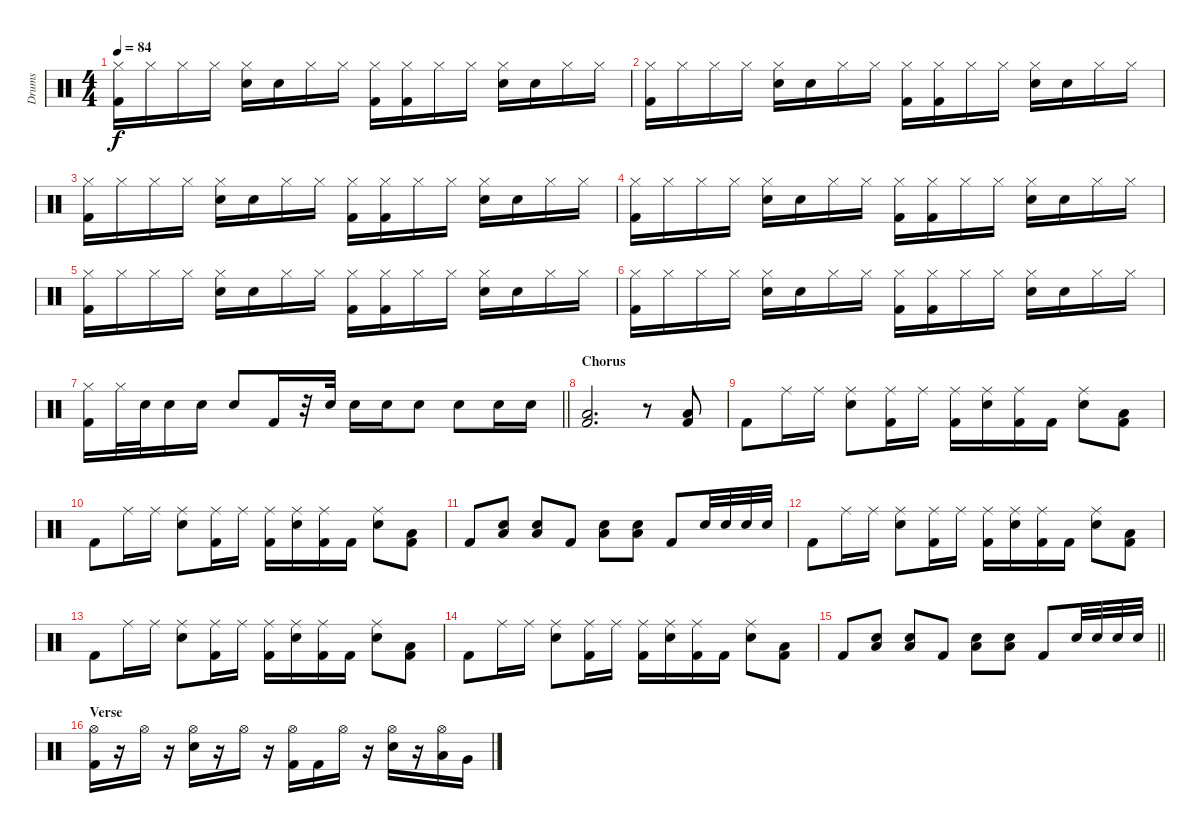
\track ("Drums" "Drums") {instrument percussion}
\staff {score}
\articulation defaults
\ts (4 4)
\tempo 84
\clef neutral
\ks c
("Hi-Hat (closed)" "Kick (hit) 2").16{dy f} "Hi-Hat (closed)".16 "Hi-Hat (closed)".16 "Hi-Hat (closed)".16 ("Hi-Hat (closed)" "Electric Snare (hit)").16 "Electric Snare (hit)".16 "Hi-Hat (closed)".16 "Hi-Hat (closed)".16 ("Hi-Hat (closed)" "Kick (hit) 2").16 ("Hi-Hat (closed)" "Kick (hit) 2").16 "Hi-Hat (closed)".16 "Hi-Hat (closed)".16 ("Hi-Hat (closed)" "Electric Snare (hit)").16 "Electric Snare (hit)".16 "Hi-Hat (closed)".16 "Hi-Hat (closed)".16 |
("Hi-Hat (closed)" "Kick (hit) 2").16 "Hi-Hat (closed)".16 "Hi-Hat (closed)".16 "Hi-Hat (closed)".16 ("Hi-Hat (closed)" "Electric Snare (hit)").16 "Electric Snare (hit)".16 "Hi-Hat (closed)".16 "Hi-Hat (closed)".16 ("Hi-Hat (closed)" "Kick (hit) 2").16 ("Hi-Hat (closed)" "Kick (hit) 2").16 "Hi-Hat (closed)".16 "Hi-Hat (closed)".16 ("Hi-Hat (closed)" "Electric Snare (hit)").16 "Electric Snare (hit)".16 "Hi-Hat (closed)".16 "Hi-Hat (closed)".16 |
("Hi-Hat (closed)" "Kick (hit) 2").16 "Hi-Hat (closed)".16 "Hi-Hat (closed)".16 "Hi-Hat (closed)".16 ("Hi-Hat (closed)" "Electric Snare (hit)").16 "Electric Snare (hit)".16 "Hi-Hat (closed)".16 "Hi-Hat (closed)".16 ("Hi-Hat (closed)" "Kick (hit) 2").16 ("Hi-Hat (closed)" "Kick (hit) 2").16 "Hi-Hat (closed)".16 "Hi-Hat (closed)".16 ("Hi-Hat (closed)" "Electric Snare (hit)").16 "Electric Snare (hit)".16 "Hi-Hat (closed)".16 "Hi-Hat (closed)".16 |
("Hi-Hat (closed)" "Kick (hit) 2").16 "Hi-Hat (closed)".16 "Hi-Hat (closed)".16 "Hi-Hat (closed)".16 ("Hi-Hat (closed)" "Electric Snare (hit)").16 "Electric Snare (hit)".16 "Hi-Hat (closed)".16 "Hi-Hat (closed)".16 ("Hi-Hat (closed)" "Kick (hit) 2").16 ("Hi-Hat (closed)" "Kick (hit) 2").16 "Hi-Hat (closed)".16 "Hi-Hat (closed)".16 ("Hi-Hat (closed)" "Electric Snare (hit)").16 "Electric Snare (hit)".16 "Hi-Hat (closed)".16 "Hi-Hat (closed)".16 |
("Hi-Hat (closed)" "Kick (hit) 2").16 "Hi-Hat (closed)".16 "Hi-Hat (closed)".16 "Hi-Hat (closed)".16 ("Hi-Hat (closed)" "Electric Snare (hit)").16 "Electric Snare (hit)".16 "Hi-Hat (closed)".16 "Hi-Hat (closed)".16 ("Hi-Hat (closed)" "Kick (hit) 2").16 ("Hi-Hat (closed)" "Kick (hit) 2").16 "Hi-Hat (closed)".16 "Hi-Hat (closed)".16 ("Hi-Hat (closed)" "Electric Snare (hit)").16 "Electric Snare (hit)".16 "Hi-Hat (closed)".16 "Hi-Hat (closed)".16 |
("Hi-Hat (closed)" "Kick (hit) 2").16 "Hi-Hat (closed)".16 "Hi-Hat (closed)".16 "Hi-Hat (closed)".16 ("Hi-Hat (closed)" "Electric Snare (hit)").16 "Electric Snare (hit)".16 "Hi-Hat (closed)".16 "Hi-Hat (closed)".16 ("Hi-Hat (closed)" "Kick (hit) 2").16 ("Hi-Hat (closed)" "Kick (hit) 2").16 "Hi-Hat (closed)".16 "Hi-Hat (closed)".16 ("Hi-Hat (closed)" "Electric Snare (hit)").16 "Electric Snare (hit)".16 "Hi-Hat (closed)".16 "Hi-Hat (closed)".16 |
\barLineRight lightlight
("Hi-Hat (closed)" "Kick (hit) 2").16 "Hi-Hat (closed)".32 "Electric Snare (hit)".32 "Electric Snare (hit)".16 "Electric Snare (hit)".16 "Electric Snare (hit)".8 "Kick (hit) 2".16 r.32 "Electric Snare (hit)".32 "Electric Snare (hit)".16 "Electric Snare (hit)".16 "Electric Snare (hit)".8 "Electric Snare (hit)".8 "Electric Snare (hit)".16 "Electric Snare (hit)".16 |
\section ("" "Chorus")
("Low Floor Tom (hit)" "Kick (hit) 2").2{d} r.8 ("Low Floor Tom (hit)" "Kick (hit) 2").8 |
"Kick (hit) 2".8 "Ride (middle)".16 "Ride (middle)".16 ("Ride (middle)" "Electric Snare (hit)").8 ("Ride (middle)" "Kick (hit) 2").16 "Ride (middle)".16 ("Ride (middle)" "Kick (hit) 2").16 ("Ride (middle)" "Electric Snare (hit)").16 ("Ride (middle)" "Kick (hit) 2").16 "Kick (hit) 2".16 ("Ride (middle)" "Electric Snare (hit)").8 ("Low Floor Tom (hit)" "Kick (hit) 2").8 |
"Kick (hit) 2".8 "Ride (middle)".16 "Ride (middle)".16 ("Ride (middle)" "Electric Snare (hit)").8 ("Ride (middle)" "Kick (hit) 2").16 "Ride (middle)".16 ("Ride (middle)" "Kick (hit) 2").16 ("Ride (middle)" "Electric Snare (hit)").16 ("Ride (middle)" "Kick (hit) 2").16 "Kick (hit) 2".16 ("Ride (middle)" "Electric Snare (hit)").8 ("Low Floor Tom (hit)" "Kick (hit) 2").8 |
"Kick (hit) 2".8 ("Low Floor Tom (hit)" "Electric Snare (hit)").8 ("Low Floor Tom (hit)" "Electric Snare (hit)").8 "Kick (hit) 2".8 ("Low Floor Tom (hit)" "Electric Snare (hit)").8 ("Low Floor Tom (hit)" "Electric Snare (hit)").8 "Kick (hit) 2".8 "Electric Snare (hit)".32 "Electric Snare (hit)".32 "Electric Snare (hit)".32 "Electric Snare (hit)".32 |
"Kick (hit) 2".8 "Ride (middle)".16 "Ride (middle)".16 ("Ride (middle)" "Electric Snare (hit)").8 ("Ride (middle)" "Kick (hit) 2").16 "Ride (middle)".16 ("Ride (middle)" "Kick (hit) 2").16 ("Ride (middle)" "Electric Snare (hit)").16 ("Ride (middle)" "Kick (hit) 2").16 "Kick (hit) 2".16 ("Ride (middle)" "Electric Snare (hit)").8 ("Low Floor Tom (hit)" "Kick (hit) 2").8 |
"Kick (hit) 2".8 "Ride (middle)".16 "Ride (middle)".16 ("Ride (middle)" "Electric Snare (hit)").8 ("Ride (middle)" "Kick (hit) 2").16 "Ride (middle)".16 ("Ride (middle)" "Kick (hit) 2").16 ("Ride (middle)" "Electric Snare (hit)").16 ("Ride (middle)" "Kick (hit) 2").16 "Kick (hit) 2".16 ("Ride (middle)" "Electric Snare (hit)").8 ("Low Floor Tom (hit)" "Kick (hit) 2").8 |
"Kick (hit) 2".8 "Ride (middle)".16 "Ride (middle)".16 ("Ride (middle)" "Electric Snare (hit)").8 ("Ride (middle)" "Kick (hit) 2").16 "Ride (middle)".16 ("Ride (middle)" "Kick (hit) 2").16 ("Ride (middle)" "Electric Snare (hit)").16 ("Ride (middle)" "Kick (hit) 2").16 "Kick (hit) 2".16 ("Ride (middle)" "Electric Snare (hit)").8 ("Low Floor Tom (hit)" "Kick (hit) 2").8 |
\barLineRight lightlight "Kick (hit) 2".8
("Low Floor Tom (hit)" "Electric Snare (hit)").8 ("Low Floor Tom (hit)" "Electric Snare (hit)").8 "Kick (hit) 2".8 ("Low Floor Tom (hit)" "Electric Snare (hit)").8 ("Low Floor Tom (hit)" "Electric Snare (hit)").8 "Kick (hit) 2".8 "Electric Snare (hit)".32 "Electric Snare (hit)".32 "Electric Snare (hit)".32 "Electric Snare (hit)".32 |
\section ("" "Verse")
("Hi-Hat (open)" "Kick (hit) 2").16{volume 10} r.16 "Hi-Hat (open)".16 r.16 ("Hi-Hat (open)" "Electric Snare (hit)").16 r.16 "Hi-Hat (open)".16 r.16 ("Hi-Hat (open)" "Kick (hit) 2").16 "Kick (hit) 2".16 "Hi-Hat (open)".16 r.16 ("Hi-Hat (open)" "Electric Snare (hit)").16 r.16 ("Hi-Hat (open)" "Low Tom (hit)").16 "Very Low Tom (hit)".16
